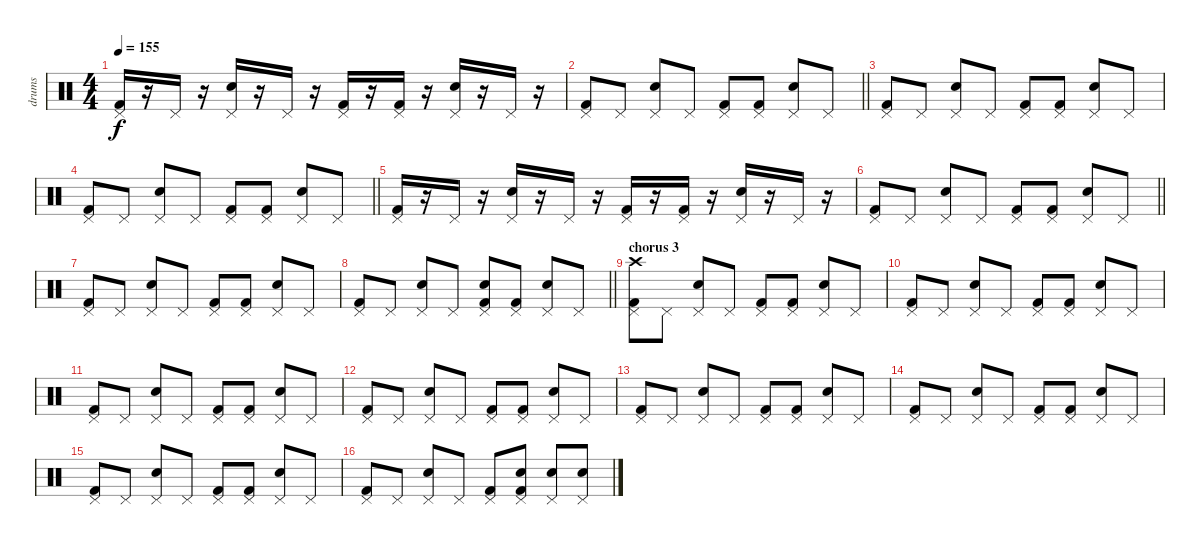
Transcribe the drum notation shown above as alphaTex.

\track ("drums" "drums") {instrument percussion}
\staff {score}
\articulation defaults
\ts (4 4)
\tempo 155
\clef neutral
\ks c
("Kick (hit) 2" "Pedal Hi-Hat (hit)").16{dy f} r.16 "Pedal Hi-Hat (hit)".16 r.16 ("Electric Snare (hit)" "Pedal Hi-Hat (hit)").16 r.16 "Pedal Hi-Hat (hit)".16 r.16 ("Kick (hit) 2" "Pedal Hi-Hat (hit)").16 r.16 ("Kick (hit) 2" "Pedal Hi-Hat (hit)").16 r.16 ("Electric Snare (hit)" "Pedal Hi-Hat (hit)").16 r.16 "Pedal Hi-Hat (hit)".16 r.16 |
\barLineRight lightlight
("Kick (hit) 2" "Pedal Hi-Hat (hit)").8 "Pedal Hi-Hat (hit)".8 ("Electric Snare (hit)" "Pedal Hi-Hat (hit)").8 "Pedal Hi-Hat (hit)".8 ("Kick (hit) 2" "Pedal Hi-Hat (hit)").8 ("Kick (hit) 2" "Pedal Hi-Hat (hit)").8 ("Electric Snare (hit)" "Pedal Hi-Hat (hit)").8 "Pedal Hi-Hat (hit)".8 |
("Kick (hit) 2" "Pedal Hi-Hat (hit)").8 "Pedal Hi-Hat (hit)".8 ("Electric Snare (hit)" "Pedal Hi-Hat (hit)").8 "Pedal Hi-Hat (hit)".8 ("Kick (hit) 2" "Pedal Hi-Hat (hit)").8 ("Kick (hit) 2" "Pedal Hi-Hat (hit)").8 ("Electric Snare (hit)" "Pedal Hi-Hat (hit)").8 "Pedal Hi-Hat (hit)".8 |
\barLineRight lightlight
("Kick (hit) 2" "Pedal Hi-Hat (hit)").8 "Pedal Hi-Hat (hit)".8 ("Electric Snare (hit)" "Pedal Hi-Hat (hit)").8 "Pedal Hi-Hat (hit)".8 ("Kick (hit) 2" "Pedal Hi-Hat (hit)").8 ("Kick (hit) 2" "Pedal Hi-Hat (hit)").8 ("Electric Snare (hit)" "Pedal Hi-Hat (hit)").8 "Pedal Hi-Hat (hit)".8 |
("Kick (hit) 2" "Pedal Hi-Hat (hit)").16 r.16 "Pedal Hi-Hat (hit)".16 r.16 ("Electric Snare (hit)" "Pedal Hi-Hat (hit)").16 r.16 "Pedal Hi-Hat (hit)".16 r.16 ("Kick (hit) 2" "Pedal Hi-Hat (hit)").16 r.16 ("Kick (hit) 2" "Pedal Hi-Hat (hit)").16 r.16 ("Electric Snare (hit)" "Pedal Hi-Hat (hit)").16 r.16 "Pedal Hi-Hat (hit)".16 r.16 |
\barLineRight lightlight
("Kick (hit) 2" "Pedal Hi-Hat (hit)").8 "Pedal Hi-Hat (hit)".8 ("Electric Snare (hit)" "Pedal Hi-Hat (hit)").8 "Pedal Hi-Hat (hit)".8 ("Kick (hit) 2" "Pedal Hi-Hat (hit)").8 ("Kick (hit) 2" "Pedal Hi-Hat (hit)").8 ("Electric Snare (hit)" "Pedal Hi-Hat (hit)").8 "Pedal Hi-Hat (hit)".8 |
("Kick (hit) 2" "Pedal Hi-Hat (hit)").8 "Pedal Hi-Hat (hit)".8 ("Electric Snare (hit)" "Pedal Hi-Hat (hit)").8 "Pedal Hi-Hat (hit)".8 ("Kick (hit) 2" "Pedal Hi-Hat (hit)").8 ("Kick (hit) 2" "Pedal Hi-Hat (hit)").8 ("Electric Snare (hit)" "Pedal Hi-Hat (hit)").8 "Pedal Hi-Hat (hit)".8 |
\barLineRight lightlight
("Kick (hit) 2" "Pedal Hi-Hat (hit)").8 "Pedal Hi-Hat (hit)".8 ("Electric Snare (hit)" "Pedal Hi-Hat (hit)").8 "Pedal Hi-Hat (hit)".8 ("Kick (hit) 2" "Electric Snare (hit)" "Pedal Hi-Hat (hit)").8 ("Kick (hit) 2" "Pedal Hi-Hat (hit)").8 ("Electric Snare (hit)" "Pedal Hi-Hat (hit)").8 "Pedal Hi-Hat (hit)".8 |
\section ("" "chorus 3")
("Kick (hit) 2" "Pedal Hi-Hat (hit)" "Crash high (hit)").8 "Pedal Hi-Hat (hit)".8 ("Electric Snare (hit)" "Pedal Hi-Hat (hit)").8 "Pedal Hi-Hat (hit)".8 ("Kick (hit) 2" "Pedal Hi-Hat (hit)").8 ("Kick (hit) 2" "Pedal Hi-Hat (hit)").8 ("Electric Snare (hit)" "Pedal Hi-Hat (hit)").8 "Pedal Hi-Hat (hit)".8 |
("Kick (hit) 2" "Pedal Hi-Hat (hit)").8 "Pedal Hi-Hat (hit)".8 ("Electric Snare (hit)" "Pedal Hi-Hat (hit)").8 "Pedal Hi-Hat (hit)".8 ("Kick (hit) 2" "Pedal Hi-Hat (hit)").8 ("Kick (hit) 2" "Pedal Hi-Hat (hit)").8 ("Electric Snare (hit)" "Pedal Hi-Hat (hit)").8 "Pedal Hi-Hat (hit)".8 |
("Kick (hit) 2" "Pedal Hi-Hat (hit)").8 "Pedal Hi-Hat (hit)".8 ("Electric Snare (hit)" "Pedal Hi-Hat (hit)").8 "Pedal Hi-Hat (hit)".8 ("Kick (hit) 2" "Pedal Hi-Hat (hit)").8 ("Kick (hit) 2" "Pedal Hi-Hat (hit)").8 ("Electric Snare (hit)" "Pedal Hi-Hat (hit)").8 "Pedal Hi-Hat (hit)".8 |
("Kick (hit) 2" "Pedal Hi-Hat (hit)").8 "Pedal Hi-Hat (hit)".8 ("Electric Snare (hit)" "Pedal Hi-Hat (hit)").8 "Pedal Hi-Hat (hit)".8 ("Kick (hit) 2" "Pedal Hi-Hat (hit)").8 ("Kick (hit) 2" "Pedal Hi-Hat (hit)").8 ("Electric Snare (hit)" "Pedal Hi-Hat (hit)").8 "Pedal Hi-Hat (hit)".8 |
("Kick (hit) 2" "Pedal Hi-Hat (hit)").8 "Pedal Hi-Hat (hit)".8 ("Electric Snare (hit)" "Pedal Hi-Hat (hit)").8 "Pedal Hi-Hat (hit)".8 ("Kick (hit) 2" "Pedal Hi-Hat (hit)").8 ("Kick (hit) 2" "Pedal Hi-Hat (hit)").8 ("Electric Snare (hit)" "Pedal Hi-Hat (hit)").8 "Pedal Hi-Hat (hit)".8 |
("Kick (hit) 2" "Pedal Hi-Hat (hit)").8 "Pedal Hi-Hat (hit)".8 ("Electric Snare (hit)" "Pedal Hi-Hat (hit)").8 "Pedal Hi-Hat (hit)".8 ("Kick (hit) 2" "Pedal Hi-Hat (hit)").8 ("Kick (hit) 2" "Pedal Hi-Hat (hit)").8 ("Electric Snare (hit)" "Pedal Hi-Hat (hit)").8 "Pedal Hi-Hat (hit)".8 |
("Kick (hit) 2" "Pedal Hi-Hat (hit)").8 "Pedal Hi-Hat (hit)".8 ("Electric Snare (hit)" "Pedal Hi-Hat (hit)").8 "Pedal Hi-Hat (hit)".8 ("Kick (hit) 2" "Pedal Hi-Hat (hit)").8 ("Kick (hit) 2" "Pedal Hi-Hat (hit)").8 ("Electric Snare (hit)" "Pedal Hi-Hat (hit)").8 "Pedal Hi-Hat (hit)".8 |
("Kick (hit) 2" "Pedal Hi-Hat (hit)").8 "Pedal Hi-Hat (hit)".8 ("Electric Snare (hit)" "Pedal Hi-Hat (hit)").8 "Pedal Hi-Hat (hit)".8 ("Kick (hit) 2" "Pedal Hi-Hat (hit)").8 ("Kick (hit) 2" "Electric Snare (hit)" "Pedal Hi-Hat (hit)").8 ("Electric Snare (hit)" "Pedal Hi-Hat (hit)").8 ("Electric Snare (hit)" "Pedal Hi-Hat (hit)").8
